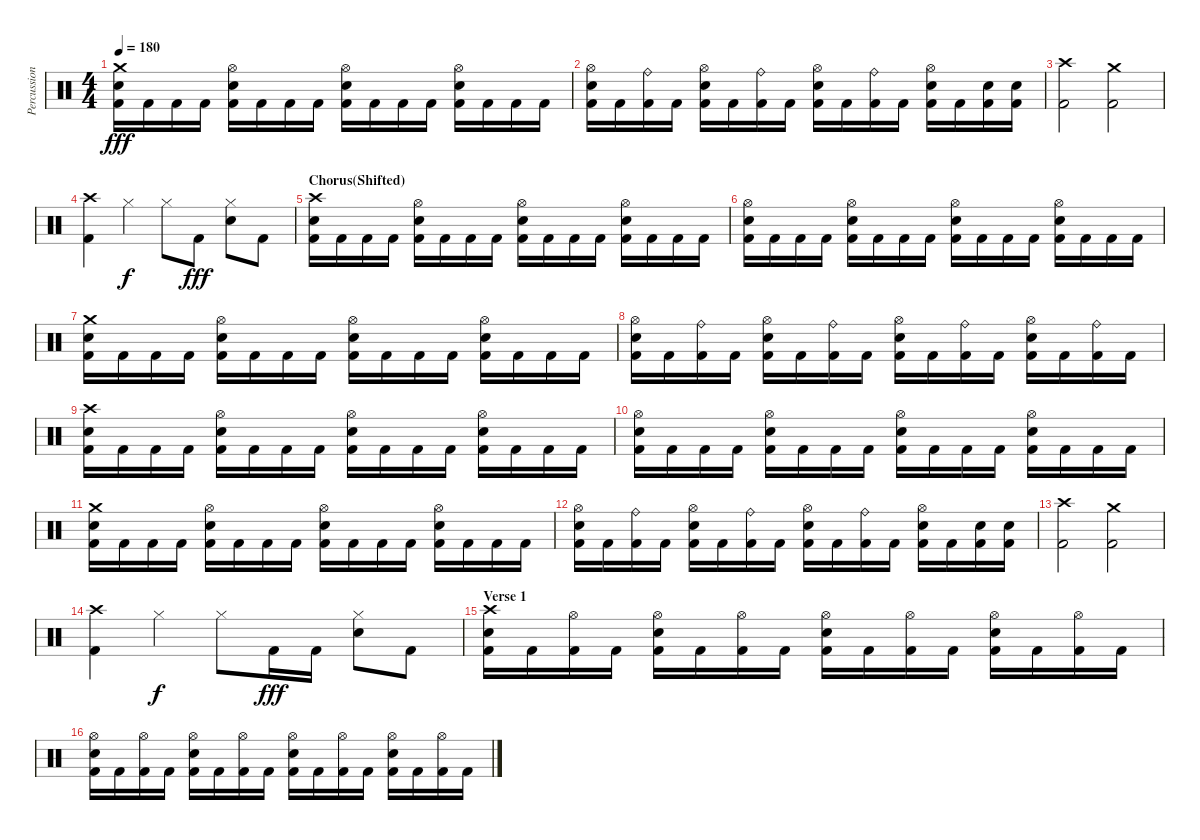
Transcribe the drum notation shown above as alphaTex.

\track ("Percussion" "Percussion") {instrument percussion}
\staff {score}
\articulation defaults
\ts (4 4)
\tempo 180
\clef neutral
\ks c
("Crash medium (hit)" "Snare (hit) 2" "Kick (hit) 2").16{dy fff} "Kick (hit) 2".16 "Kick (hit) 2".16 "Kick (hit) 2".16 ("Hi-Hat (open)" "Snare (hit) 2" "Kick (hit) 2").16 "Kick (hit) 2".16 "Kick (hit) 2".16 "Kick (hit) 2".16 ("Hi-Hat (open)" "Snare (hit) 2" "Kick (hit) 2").16 "Kick (hit) 2".16 "Kick (hit) 2".16 "Kick (hit) 2".16 ("Hi-Hat (open)" "Snare (hit) 2" "Kick (hit) 2").16 "Kick (hit) 2".16 "Kick (hit) 2".16 "Kick (hit) 2".16 |
("Hi-Hat (open)" "Snare (hit) 2" "Kick (hit) 2").16 "Kick (hit) 2".16 ("Ride (bell)" "Kick (hit) 2").16 "Kick (hit) 2".16 ("Hi-Hat (open)" "Snare (hit) 2" "Kick (hit) 2").16 "Kick (hit) 2".16 ("Ride (bell)" "Kick (hit) 2").16 "Kick (hit) 2".16 ("Hi-Hat (open)" "Snare (hit) 2" "Kick (hit) 2").16 "Kick (hit) 2".16 ("Ride (bell)" "Kick (hit) 2").16 "Kick (hit) 2".16 ("Hi-Hat (open)" "Snare (hit) 2" "Kick (hit) 2").16 "Kick (hit) 2".16 ("Snare (hit) 2" "Kick (hit) 2").16 ("Snare (hit) 2" "Kick (hit) 2").16 |
("Crash high (hit)" "Kick (hit) 2").2 ("Crash medium (hit)" "Kick (hit) 2").2 |
("Crash high (hit)" "Kick (hit) 2").4 "Hi-Hat (closed)".4{dy f} "Hi-Hat (closed)".8 "Kick (hit) 2".8{dy fff} ("Hi-Hat (closed)" "Snare (hit) 2").8 "Kick (hit) 2".8 |
\section ("" "Chorus(Shifted)")
("Crash high (hit)" "Snare (hit) 2" "Kick (hit) 2").16 "Kick (hit) 2".16 "Kick (hit) 2".16 "Kick (hit) 2".16 ("Hi-Hat (open)" "Snare (hit) 2" "Kick (hit) 2").16 "Kick (hit) 2".16 "Kick (hit) 2".16 "Kick (hit) 2".16 ("Hi-Hat (open)" "Snare (hit) 2" "Kick (hit) 2").16 "Kick (hit) 2".16 "Kick (hit) 2".16 "Kick (hit) 2".16 ("Hi-Hat (open)" "Snare (hit) 2" "Kick (hit) 2").16 "Kick (hit) 2".16 "Kick (hit) 2".16 "Kick (hit) 2".16 |
("Hi-Hat (open)" "Snare (hit) 2" "Kick (hit) 2").16 "Kick (hit) 2".16 "Kick (hit) 2".16 "Kick (hit) 2".16 ("Hi-Hat (open)" "Snare (hit) 2" "Kick (hit) 2").16 "Kick (hit) 2".16 "Kick (hit) 2".16 "Kick (hit) 2".16 ("Hi-Hat (open)" "Snare (hit) 2" "Kick (hit) 2").16 "Kick (hit) 2".16 "Kick (hit) 2".16 "Kick (hit) 2".16 ("Hi-Hat (open)" "Snare (hit) 2" "Kick (hit) 2").16 "Kick (hit) 2".16 "Kick (hit) 2".16 "Kick (hit) 2".16 |
("Crash medium (hit)" "Snare (hit) 2" "Kick (hit) 2").16 "Kick (hit) 2".16 "Kick (hit) 2".16 "Kick (hit) 2".16 ("Hi-Hat (open)" "Snare (hit) 2" "Kick (hit) 2").16 "Kick (hit) 2".16 "Kick (hit) 2".16 "Kick (hit) 2".16 ("Hi-Hat (open)" "Snare (hit) 2" "Kick (hit) 2").16 "Kick (hit) 2".16 "Kick (hit) 2".16 "Kick (hit) 2".16 ("Hi-Hat (open)" "Snare (hit) 2" "Kick (hit) 2").16 "Kick (hit) 2".16 "Kick (hit) 2".16 "Kick (hit) 2".16 |
("Hi-Hat (open)" "Snare (hit) 2" "Kick (hit) 2").16 "Kick (hit) 2".16 ("Ride (bell)" "Kick (hit) 2").16 "Kick (hit) 2".16 ("Hi-Hat (open)" "Snare (hit) 2" "Kick (hit) 2").16 "Kick (hit) 2".16 ("Ride (bell)" "Kick (hit) 2").16 "Kick (hit) 2".16 ("Hi-Hat (open)" "Snare (hit) 2" "Kick (hit) 2").16 "Kick (hit) 2".16 ("Ride (bell)" "Kick (hit) 2").16 "Kick (hit) 2".16 ("Hi-Hat (open)" "Snare (hit) 2" "Kick (hit) 2").16 "Kick (hit) 2".16 ("Ride (bell)" "Kick (hit) 2").16 "Kick (hit) 2".16 |
("Crash high (hit)" "Snare (hit) 2" "Kick (hit) 2").16 "Kick (hit) 2".16 "Kick (hit) 2".16 "Kick (hit) 2".16 ("Hi-Hat (open)" "Snare (hit) 2" "Kick (hit) 2").16 "Kick (hit) 2".16 "Kick (hit) 2".16 "Kick (hit) 2".16 ("Hi-Hat (open)" "Snare (hit) 2" "Kick (hit) 2").16 "Kick (hit) 2".16 "Kick (hit) 2".16 "Kick (hit) 2".16 ("Hi-Hat (open)" "Snare (hit) 2" "Kick (hit) 2").16 "Kick (hit) 2".16 "Kick (hit) 2".16 "Kick (hit) 2".16 |
("Hi-Hat (open)" "Snare (hit) 2" "Kick (hit) 2").16 "Kick (hit) 2".16 "Kick (hit) 2".16 "Kick (hit) 2".16 ("Hi-Hat (open)" "Snare (hit) 2" "Kick (hit) 2").16 "Kick (hit) 2".16 "Kick (hit) 2".16 "Kick (hit) 2".16 ("Hi-Hat (open)" "Snare (hit) 2" "Kick (hit) 2").16 "Kick (hit) 2".16 "Kick (hit) 2".16 "Kick (hit) 2".16 ("Hi-Hat (open)" "Snare (hit) 2" "Kick (hit) 2").16 "Kick (hit) 2".16 "Kick (hit) 2".16 "Kick (hit) 2".16 |
("Crash medium (hit)" "Snare (hit) 2" "Kick (hit) 2").16 "Kick (hit) 2".16 "Kick (hit) 2".16 "Kick (hit) 2".16 ("Hi-Hat (open)" "Snare (hit) 2" "Kick (hit) 2").16 "Kick (hit) 2".16 "Kick (hit) 2".16 "Kick (hit) 2".16 ("Hi-Hat (open)" "Snare (hit) 2" "Kick (hit) 2").16 "Kick (hit) 2".16 "Kick (hit) 2".16 "Kick (hit) 2".16 ("Hi-Hat (open)" "Snare (hit) 2" "Kick (hit) 2").16 "Kick (hit) 2".16 "Kick (hit) 2".16 "Kick (hit) 2".16 |
("Hi-Hat (open)" "Snare (hit) 2" "Kick (hit) 2").16 "Kick (hit) 2".16 ("Ride (bell)" "Kick (hit) 2").16 "Kick (hit) 2".16 ("Hi-Hat (open)" "Snare (hit) 2" "Kick (hit) 2").16 "Kick (hit) 2".16 ("Ride (bell)" "Kick (hit) 2").16 "Kick (hit) 2".16 ("Hi-Hat (open)" "Snare (hit) 2" "Kick (hit) 2").16 "Kick (hit) 2".16 ("Ride (bell)" "Kick (hit) 2").16 "Kick (hit) 2".16 ("Hi-Hat (open)" "Snare (hit) 2" "Kick (hit) 2").16 "Kick (hit) 2".16 ("Snare (hit) 2" "Kick (hit) 2").16 ("Snare (hit) 2" "Kick (hit) 2").16 |
("Crash high (hit)" "Kick (hit) 2").2 ("Crash medium (hit)" "Kick (hit) 2").2 |
("Crash high (hit)" "Kick (hit) 2").4 "Hi-Hat (closed)".4{dy f} "Hi-Hat (closed)".8 "Kick (hit) 2".16{dy fff} "Kick (hit) 2".16 ("Hi-Hat (closed)" "Snare (hit) 2").8 "Kick (hit) 2".8 |
\section ("" "Verse 1")
("Crash high (hit)" "Snare (hit) 2" "Kick (hit) 2").16 "Kick (hit) 2".16 ("Hi-Hat (open)" "Kick (hit) 2").16 "Kick (hit) 2".16 ("Hi-Hat (open)" "Snare (hit) 2" "Kick (hit) 2").16 "Kick (hit) 2".16 ("Hi-Hat (open)" "Kick (hit) 2").16 "Kick (hit) 2".16 ("Hi-Hat (open)" "Snare (hit) 2" "Kick (hit) 2").16 "Kick (hit) 2".16 ("Hi-Hat (open)" "Kick (hit) 2").16 "Kick (hit) 2".16 ("Hi-Hat (open)" "Snare (hit) 2" "Kick (hit) 2").16 "Kick (hit) 2".16 ("Hi-Hat (open)" "Kick (hit) 2").16 "Kick (hit) 2".16 |
("Hi-Hat (open)" "Snare (hit) 2" "Kick (hit) 2").16 "Kick (hit) 2".16 ("Hi-Hat (open)" "Kick (hit) 2").16 "Kick (hit) 2".16 ("Hi-Hat (open)" "Snare (hit) 2" "Kick (hit) 2").16 "Kick (hit) 2".16 ("Hi-Hat (open)" "Kick (hit) 2").16 "Kick (hit) 2".16 ("Hi-Hat (open)" "Snare (hit) 2" "Kick (hit) 2").16 "Kick (hit) 2".16 ("Hi-Hat (open)" "Kick (hit) 2").16 "Kick (hit) 2".16 ("Hi-Hat (open)" "Snare (hit) 2" "Kick (hit) 2").16 "Kick (hit) 2".16 ("Hi-Hat (open)" "Kick (hit) 2").16 "Kick (hit) 2".16
